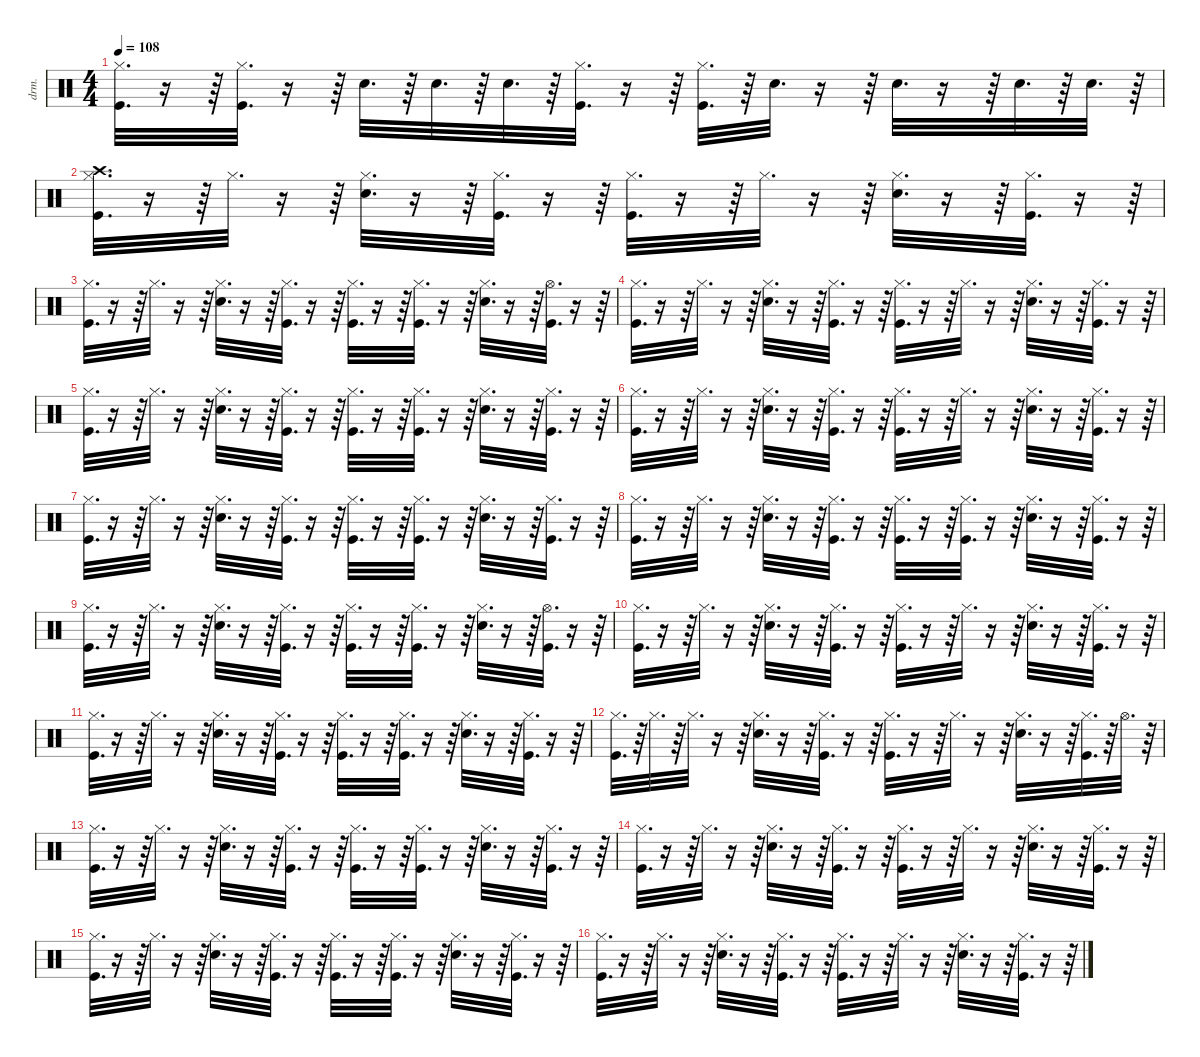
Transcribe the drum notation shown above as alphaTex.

\defaultSystemsLayout 4
\hideDynamics
\bracketExtendMode nobrackets
\otherSystemsTrackNameOrientation horizontal
\track ("Percussions" "drm.") {instrument percussion}
\staff {score}
\articulation defaults
\ts (4 4)
\tempo 108
\clef neutral
\ks c
("Hi-Hat (closed)" "Kick (hit)").32{d dy f} r.16 r.64 ("Hi-Hat (closed)" "Kick (hit)").32{d} r.16 r.64 "Snare (hit) 2".32{d} r.64 "Snare (hit) 2".32{d} r.64 "Snare (hit) 2".32{d} r.64 ("Kick (hit)" "Hi-Hat (closed)").32{d} r.16 r.64 ("Kick (hit)" "Hi-Hat (closed)").32{d} r.64 "Snare (hit) 2".32{d} r.16 r.64 "Snare (hit) 2".32{d} r.16 r.64 "Snare (hit) 2".32{d} r.64 "Snare (hit) 2".32{d} r.64 |
("Crash high (hit)" "Hi-Hat (closed)" "Kick (hit)").32{d} r.16 r.64 "Hi-Hat (closed)".32{d} r.16 r.64 ("Hi-Hat (closed)" "Snare (hit) 2").32{d} r.16 r.64 ("Hi-Hat (closed)" "Kick (hit)").32{d} r.16 r.64 ("Hi-Hat (closed)" "Kick (hit)").32{d} r.16 r.64 "Hi-Hat (closed)".32{d} r.16 r.64 ("Hi-Hat (closed)" "Snare (hit) 2").32{d} r.16 r.64 ("Hi-Hat (closed)" "Kick (hit)").32{d} r.16 r.64 |
("Hi-Hat (closed)" "Kick (hit)").32{d} r.16 r.64 "Hi-Hat (closed)".32{d} r.16 r.64 ("Hi-Hat (closed)" "Snare (hit) 2").32{d} r.16 r.64 ("Hi-Hat (closed)" "Kick (hit)").32{d} r.16 r.64 ("Hi-Hat (closed)" "Kick (hit)").32{d} r.16 r.64 ("Hi-Hat (closed)" "Kick (hit)").32{d} r.16 r.64 ("Hi-Hat (closed)" "Snare (hit) 2").32{d} r.16 r.64 ("Hi-Hat (open)" "Kick (hit)").32{d} r.16 r.64 |
("Hi-Hat (closed)" "Kick (hit)").32{d} r.16 r.64 "Hi-Hat (closed)".32{d} r.16 r.64 ("Hi-Hat (closed)" "Snare (hit) 2").32{d} r.16 r.64 ("Hi-Hat (closed)" "Kick (hit)").32{d} r.16 r.64 ("Hi-Hat (closed)" "Kick (hit)").32{d} r.16 r.64 "Hi-Hat (closed)".32{d} r.16 r.64 ("Hi-Hat (closed)" "Snare (hit) 2").32{d} r.16 r.64 ("Hi-Hat (closed)" "Kick (hit)").32{d} r.16 r.64 |
("Hi-Hat (closed)" "Kick (hit)").32{d} r.16 r.64 "Hi-Hat (closed)".32{d} r.16 r.64 ("Hi-Hat (closed)" "Snare (hit) 2").32{d} r.16 r.64 ("Hi-Hat (closed)" "Kick (hit)").32{d} r.16 r.64 ("Hi-Hat (closed)" "Kick (hit)").32{d} r.16 r.64 ("Hi-Hat (closed)" "Kick (hit)").32{d} r.16 r.64 ("Hi-Hat (closed)" "Snare (hit) 2").32{d} r.16 r.64 ("Hi-Hat (closed)" "Kick (hit)").32{d} r.16 r.64 |
("Hi-Hat (closed)" "Kick (hit)").32{d} r.16 r.64 "Hi-Hat (closed)".32{d} r.16 r.64 ("Hi-Hat (closed)" "Snare (hit) 2").32{d} r.16 r.64 ("Hi-Hat (closed)" "Kick (hit)").32{d} r.16 r.64 ("Hi-Hat (closed)" "Kick (hit)").32{d} r.16 r.64 "Hi-Hat (closed)".32{d} r.16 r.64 ("Hi-Hat (closed)" "Snare (hit) 2").32{d} r.16 r.64 ("Hi-Hat (closed)" "Kick (hit)").32{d} r.16 r.64 |
("Hi-Hat (closed)" "Kick (hit)").32{d} r.16 r.64 "Hi-Hat (closed)".32{d} r.16 r.64 ("Hi-Hat (closed)" "Snare (hit) 2").32{d} r.16 r.64 ("Hi-Hat (closed)" "Kick (hit)").32{d} r.16 r.64 ("Hi-Hat (closed)" "Kick (hit)").32{d} r.16 r.64 ("Hi-Hat (closed)" "Kick (hit)").32{d} r.16 r.64 ("Hi-Hat (closed)" "Snare (hit) 2").32{d} r.16 r.64 ("Hi-Hat (closed)" "Kick (hit)").32{d} r.16 r.64 |
("Hi-Hat (closed)" "Kick (hit)").32{d} r.16 r.64 "Hi-Hat (closed)".32{d} r.16 r.64 ("Hi-Hat (closed)" "Snare (hit) 2").32{d} r.16 r.64 ("Hi-Hat (closed)" "Kick (hit)").32{d} r.16 r.64 ("Hi-Hat (closed)" "Kick (hit)").32{d} r.16 r.64 ("Kick (hit)" "Hi-Hat (closed)").32{d} r.16 r.64 ("Hi-Hat (closed)" "Snare (hit) 2").32{d} r.16 r.64 ("Hi-Hat (closed)" "Kick (hit)").32{d} r.16 r.64 |
("Hi-Hat (closed)" "Kick (hit)").32{d} r.16 r.64 "Hi-Hat (closed)".32{d} r.16 r.64 ("Hi-Hat (closed)" "Snare (hit) 2").32{d} r.16 r.64 ("Hi-Hat (closed)" "Kick (hit)").32{d} r.16 r.64 ("Hi-Hat (closed)" "Kick (hit)").32{d} r.16 r.64 ("Hi-Hat (closed)" "Kick (hit)").32{d} r.16 r.64 ("Hi-Hat (closed)" "Snare (hit) 2").32{d} r.16 r.64 ("Hi-Hat (open)" "Kick (hit)").32{d} r.16 r.64 |
("Hi-Hat (closed)" "Kick (hit)").32{d} r.16 r.64 "Hi-Hat (closed)".32{d} r.16 r.64 ("Hi-Hat (closed)" "Snare (hit) 2").32{d} r.16 r.64 ("Hi-Hat (closed)" "Kick (hit)").32{d} r.16 r.64 ("Hi-Hat (closed)" "Kick (hit)").32{d} r.16 r.64 "Hi-Hat (closed)".32{d} r.16 r.64 ("Hi-Hat (closed)" "Snare (hit) 2").32{d} r.16 r.64 ("Hi-Hat (closed)" "Kick (hit)").32{d} r.16 r.64 |
("Hi-Hat (closed)" "Kick (hit)").32{d} r.16 r.64 "Hi-Hat (closed)".32{d} r.16 r.64 ("Hi-Hat (closed)" "Snare (hit) 2").32{d} r.16 r.64 ("Hi-Hat (closed)" "Kick (hit)").32{d} r.16 r.64 ("Hi-Hat (closed)" "Kick (hit)").32{d} r.16 r.64 ("Hi-Hat (closed)" "Kick (hit)").32{d} r.16 r.64 ("Hi-Hat (closed)" "Snare (hit) 2").32{d} r.16 r.64 ("Hi-Hat (closed)" "Kick (hit)").32{d} r.16 r.64 |
("Hi-Hat (closed)" "Kick (hit)").32{d} r.64 "Hi-Hat (closed)".32{d} r.64 "Hi-Hat (closed)".32{d} r.16 r.64 ("Hi-Hat (closed)" "Snare (hit) 2").32{d} r.16 r.64 ("Hi-Hat (closed)" "Kick (hit)").32{d} r.16 r.64 ("Hi-Hat (closed)" "Kick (hit)").32{d} r.16 r.64 "Hi-Hat (closed)".32{d} r.16 r.64 ("Hi-Hat (closed)" "Snare (hit) 2").32{d} r.16 r.64 ("Hi-Hat (closed)" "Kick (hit)").32{d} r.64 "Hi-Hat (open)".32{d} r.64 |
("Hi-Hat (closed)" "Kick (hit)").32{d} r.16 r.64 "Hi-Hat (closed)".32{d} r.16 r.64 ("Hi-Hat (closed)" "Snare (hit) 2").32{d} r.16 r.64 ("Hi-Hat (closed)" "Kick (hit)").32{d} r.16 r.64 ("Hi-Hat (closed)" "Kick (hit)").32{d} r.16 r.64 ("Hi-Hat (closed)" "Kick (hit)").32{d} r.16 r.64 ("Hi-Hat (closed)" "Snare (hit) 2").32{d} r.16 r.64 ("Hi-Hat (closed)" "Kick (hit)").32{d} r.16 r.64 |
("Hi-Hat (closed)" "Kick (hit)").32{d} r.16 r.64 "Hi-Hat (closed)".32{d} r.16 r.64 ("Hi-Hat (closed)" "Snare (hit) 2").32{d} r.16 r.64 ("Hi-Hat (closed)" "Kick (hit)").32{d} r.16 r.64 ("Hi-Hat (closed)" "Kick (hit)").32{d} r.16 r.64 "Hi-Hat (closed)".32{d} r.16 r.64 ("Hi-Hat (closed)" "Snare (hit) 2").32{d} r.16 r.64 ("Hi-Hat (closed)" "Kick (hit)").32{d} r.16 r.64 |
("Hi-Hat (closed)" "Kick (hit)").32{d} r.16 r.64 "Hi-Hat (closed)".32{d} r.16 r.64 ("Hi-Hat (closed)" "Snare (hit) 2").32{d} r.16 r.64 ("Hi-Hat (closed)" "Kick (hit)").32{d} r.16 r.64 ("Hi-Hat (closed)" "Kick (hit)").32{d} r.16 r.64 ("Hi-Hat (closed)" "Kick (hit)").32{d} r.16 r.64 ("Hi-Hat (closed)" "Snare (hit) 2").32{d} r.16 r.64 ("Hi-Hat (closed)" "Kick (hit)").32{d} r.16 r.64 |
("Hi-Hat (closed)" "Kick (hit)").32{d} r.16 r.64 "Hi-Hat (closed)".32{d} r.16 r.64 ("Hi-Hat (closed)" "Snare (hit) 2").32{d} r.16 r.64 ("Hi-Hat (closed)" "Kick (hit)").32{d} r.16 r.64 ("Hi-Hat (closed)" "Kick (hit)").32{d} r.16 r.64 "Hi-Hat (closed)".32{d} r.16 r.64 ("Hi-Hat (closed)" "Snare (hit) 2").32{d} r.16 r.64 ("Hi-Hat (closed)" "Kick (hit)").32{d} r.16 r.64
